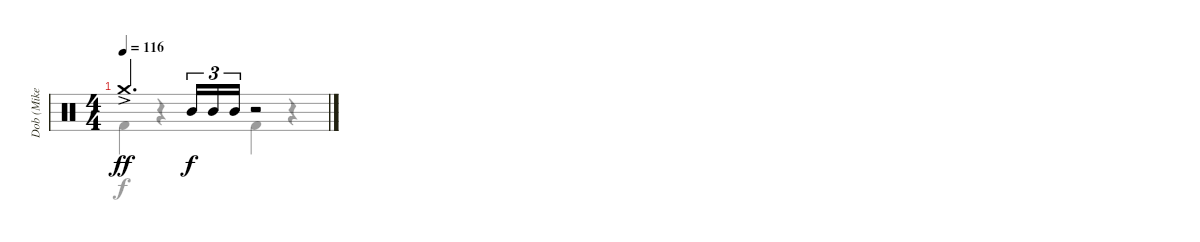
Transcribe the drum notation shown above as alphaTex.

\track ("Dob (Mike Terrana)" "Dob (Mike ") {instrument percussion}
\staff {score}
\articulation defaults
\voice
\ts (4 4)
\tempo 116
\clef neutral
\ks c "Crash medium (hit)"{ac}.4{d dy ff} "Mid Tom (hit)".16{tu (3 2) dy f} "Mid Tom (hit)".16{tu (3 2)} "Mid Tom (hit)".16{tu (3 2)}
r.2 |
\voice
\clef neutral
\ottava regular
\simile none
\ks c "Kick (hit) 2".4{dy f}
r.4 "Kick (hit) 2".4 r.4 |
